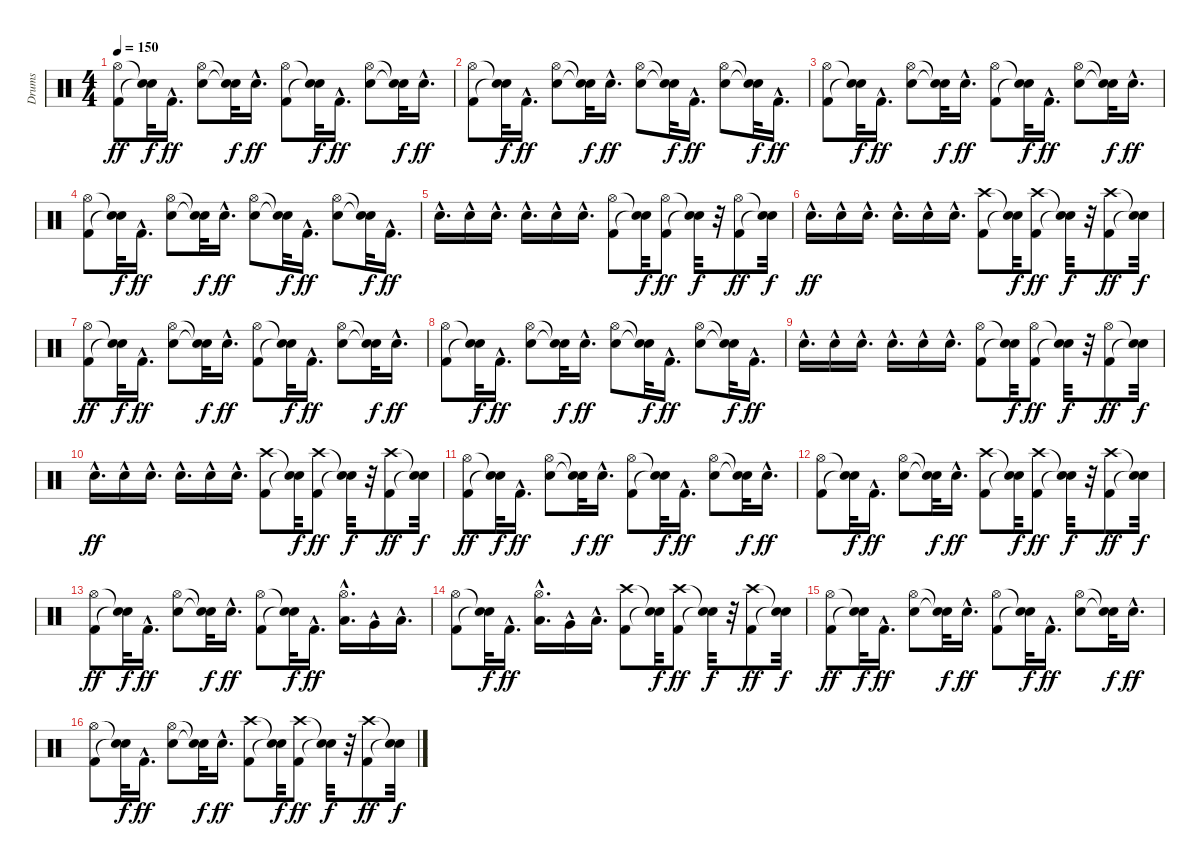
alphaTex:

\track ("Drums" "Drums") {instrument percussion}
\staff {score}
\articulation defaults
\ts (4 4)
\tempo 150
\clef neutral
\ks c
("Kick (hit) 2" "Hi-Hat (open)").8{dy ff} ("Snare (hit)"{t} "Snare (hit)"{t}).32{dy f} "Kick (hit) 2"{hac}.16{d dy ff} ("Snare (hit) 2" "Hi-Hat (open)").8 ("Snare (hit)"{t} "Snare (hit)"{t}).32{dy f} "Snare (hit) 2"{hac}.16{d dy ff} ("Kick (hit) 2" "Hi-Hat (open)").8 ("Snare (hit)"{t} "Snare (hit)"{t}).32{dy f} "Kick (hit) 2"{hac}.16{d dy ff} ("Snare (hit) 2" "Hi-Hat (open)").8 ("Snare (hit)"{t} "Snare (hit)"{t}).32{dy f} "Snare (hit) 2"{hac}.16{d dy ff} |
("Kick (hit) 2" "Hi-Hat (open)").8 ("Snare (hit)"{t} "Snare (hit)"{t}).32{dy f} "Kick (hit) 2"{hac}.16{d dy ff} ("Snare (hit) 2" "Hi-Hat (open)").8 ("Snare (hit)"{t} "Snare (hit)"{t}).32{dy f} "Snare (hit) 2"{hac}.16{d dy ff} ("Snare (hit) 2" "Hi-Hat (open)").8 ("Snare (hit)"{t} "Snare (hit)"{t}).32{dy f} "Kick (hit) 2"{hac}.16{d dy ff} ("Snare (hit) 2" "Hi-Hat (open)").8 ("Snare (hit)"{t} "Snare (hit)"{t}).32{dy f} "Kick (hit) 2"{hac}.16{d dy ff} |
("Kick (hit) 2" "Hi-Hat (open)").8 ("Snare (hit)"{t} "Snare (hit)"{t}).32{dy f} "Kick (hit) 2"{hac}.16{d dy ff} ("Snare (hit) 2" "Hi-Hat (open)").8 ("Snare (hit)"{t} "Snare (hit)"{t}).32{dy f} "Snare (hit) 2"{hac}.16{d dy ff} ("Kick (hit) 2" "Hi-Hat (open)").8 ("Snare (hit)"{t} "Snare (hit)"{t}).32{dy f} "Kick (hit) 2"{hac}.16{d dy ff} ("Snare (hit) 2" "Hi-Hat (open)").8 ("Snare (hit)"{t} "Snare (hit)"{t}).32{dy f} "Snare (hit) 2"{hac}.16{d dy ff} |
("Kick (hit) 2" "Hi-Hat (open)").8 ("Snare (hit)"{t} "Snare (hit)"{t}).32{dy f} "Kick (hit) 2"{hac}.16{d dy ff} ("Snare (hit) 2" "Hi-Hat (open)").8 ("Snare (hit)"{t} "Snare (hit)"{t}).32{dy f} "Snare (hit) 2"{hac}.16{d dy ff} ("Snare (hit) 2" "Hi-Hat (open)").8 ("Snare (hit)"{t} "Snare (hit)"{t}).32{dy f} "Kick (hit) 2"{hac}.16{d dy ff} ("Snare (hit) 2" "Hi-Hat (open)").8 ("Snare (hit)"{t} "Snare (hit)"{t}).32{dy f} "Kick (hit) 2"{hac}.16{d dy ff} |
"Snare (hit) 2"{hac}.16{d} "Snare (hit) 2"{hac}.16 "Snare (hit) 2"{hac}.16{d} "Snare (hit) 2"{hac}.16{d} "Snare (hit) 2"{hac}.16 "Snare (hit) 2"{hac}.16{d} ("Kick (hit) 2" "Hi-Hat (open)").8 ("Snare (hit)"{t} "Snare (hit)"{t}).32{dy f} ("Kick (hit) 2" "Hi-Hat (open)").8{dy ff} ("Snare (hit)"{t} "Snare (hit)"{t}).32{dy f} r.32 ("Kick (hit) 2" "Hi-Hat (open)").8{dy ff} ("Snare (hit)"{t} "Snare (hit)"{t}).32{dy f} |
"Snare (hit) 2"{hac}.16{d dy ff} "Snare (hit) 2"{hac}.16 "Snare (hit) 2"{hac}.16{d} "Snare (hit) 2"{hac}.16{d} "Snare (hit) 2"{hac}.16 "Snare (hit) 2"{hac}.16{d} ("Kick (hit) 2" "Crash high (hit)").8 ("Snare (hit)"{t} "Snare (hit)"{t}).32{dy f} ("Kick (hit) 2" "Crash high (hit)").8{dy ff} ("Snare (hit)"{t} "Snare (hit)"{t}).32{dy f} r.32 ("Kick (hit) 2" "Crash high (hit)").8{dy ff} ("Snare (hit)"{t} "Snare (hit)"{t}).32{dy f} |
("Kick (hit) 2" "Hi-Hat (open)").8{dy ff} ("Snare (hit)"{t} "Snare (hit)"{t}).32{dy f} "Kick (hit) 2"{hac}.16{d dy ff} ("Snare (hit) 2" "Hi-Hat (open)").8 ("Snare (hit)"{t} "Snare (hit)"{t}).32{dy f} "Snare (hit) 2"{hac}.16{d dy ff} ("Kick (hit) 2" "Hi-Hat (open)").8 ("Snare (hit)"{t} "Snare (hit)"{t}).32{dy f} "Kick (hit) 2"{hac}.16{d dy ff} ("Snare (hit) 2" "Hi-Hat (open)").8 ("Snare (hit)"{t} "Snare (hit)"{t}).32{dy f} "Snare (hit) 2"{hac}.16{d dy ff} |
("Kick (hit) 2" "Hi-Hat (open)").8 ("Snare (hit)"{t} "Snare (hit)"{t}).32{dy f} "Kick (hit) 2"{hac}.16{d dy ff} ("Snare (hit) 2" "Hi-Hat (open)").8 ("Snare (hit)"{t} "Snare (hit)"{t}).32{dy f} "Snare (hit) 2"{hac}.16{d dy ff} ("Snare (hit) 2" "Hi-Hat (open)").8 ("Snare (hit)"{t} "Snare (hit)"{t}).32{dy f} "Kick (hit) 2"{hac}.16{d dy ff} ("Snare (hit) 2" "Hi-Hat (open)").8 ("Snare (hit)"{t} "Snare (hit)"{t}).32{dy f} "Kick (hit) 2"{hac}.16{d dy ff} |
"Snare (hit) 2"{hac}.16{d} "Snare (hit) 2"{hac}.16 "Snare (hit) 2"{hac}.16{d} "Snare (hit) 2"{hac}.16{d} "Snare (hit) 2"{hac}.16 "Snare (hit) 2"{hac}.16{d} ("Kick (hit) 2" "Hi-Hat (open)").8 ("Snare (hit)"{t} "Snare (hit)"{t}).32{dy f} ("Kick (hit) 2" "Hi-Hat (open)").8{dy ff} ("Snare (hit)"{t} "Snare (hit)"{t}).32{dy f} r.32 ("Kick (hit) 2" "Hi-Hat (open)").8{dy ff} ("Snare (hit)"{t} "Snare (hit)"{t}).32{dy f} |
"Snare (hit) 2"{hac}.16{d dy ff} "Snare (hit) 2"{hac}.16 "Snare (hit) 2"{hac}.16{d} "Snare (hit) 2"{hac}.16{d} "Snare (hit) 2"{hac}.16 "Snare (hit) 2"{hac}.16{d} ("Kick (hit) 2" "Crash high (hit)").8 ("Snare (hit)"{t} "Snare (hit)"{t}).32{dy f} ("Kick (hit) 2" "Crash high (hit)").8{dy ff} ("Snare (hit)"{t} "Snare (hit)"{t}).32{dy f} r.32 ("Kick (hit) 2" "Crash high (hit)").8{dy ff} ("Snare (hit)"{t} "Snare (hit)"{t}).32{dy f} |
("Kick (hit) 2" "Hi-Hat (open)").8{dy ff} ("Snare (hit)"{t} "Snare (hit)"{t}).32{dy f} "Kick (hit) 2"{hac}.16{d dy ff} ("Snare (hit) 2" "Hi-Hat (open)").8 ("Snare (hit)"{t} "Snare (hit)"{t}).32{dy f} "Snare (hit) 2"{hac}.16{d dy ff} ("Kick (hit) 2" "Hi-Hat (open)").8 ("Snare (hit)"{t} "Snare (hit)"{t}).32{dy f} "Kick (hit) 2"{hac}.16{d dy ff} ("Snare (hit) 2" "Hi-Hat (open)").8 ("Snare (hit)"{t} "Snare (hit)"{t}).32{dy f} "Snare (hit) 2"{hac}.16{d dy ff} |
("Kick (hit) 2" "Hi-Hat (open)").8 ("Snare (hit)"{t} "Snare (hit)"{t}).32{dy f} "Kick (hit) 2"{hac}.16{d dy ff} ("Snare (hit) 2" "Hi-Hat (open)").8 ("Snare (hit)"{t} "Snare (hit)"{t}).32{dy f} "Snare (hit) 2"{hac}.16{d dy ff} ("Kick (hit) 2" "Crash high (hit)").8 ("Snare (hit)"{t} "Snare (hit)"{t}).32{dy f} ("Kick (hit) 2" "Crash high (hit)").8{dy ff} ("Snare (hit)"{t} "Snare (hit)"{t}).32{dy f} r.32 ("Kick (hit) 2" "Crash high (hit)").8{dy ff} ("Snare (hit)"{t} "Snare (hit)"{t}).32{dy f} |
("Kick (hit) 2" "Hi-Hat (open)").8{dy ff} ("Snare (hit)"{t} "Snare (hit)"{t}).32{dy f} "Kick (hit) 2"{hac}.16{d dy ff} ("Snare (hit) 2" "Hi-Hat (open)").8 ("Snare (hit)"{t} "Snare (hit)"{t}).32{dy f} "Snare (hit) 2"{hac}.16{d dy ff} ("Kick (hit) 2" "Hi-Hat (open)").8 ("Snare (hit)"{t} "Snare (hit)"{t}).32{dy f} "Kick (hit) 2"{hac}.16{d dy ff} ("Low Tom (hit)"{hac} "Hi-Hat (open)"{hac}).16{d} "Very Low Tom (hit)"{hac}.16 "Low Floor Tom (hit)"{hac}.16{d} |
("Kick (hit) 2" "Hi-Hat (open)").8 ("Snare (hit)"{t} "Snare (hit)"{t}).32{dy f} "Kick (hit) 2"{hac}.16{d dy ff} ("Low Tom (hit)"{hac} "Hi-Hat (open)"{hac}).16{d} "Very Low Tom (hit)"{hac}.16 "Low Floor Tom (hit)"{hac}.16{d} ("Kick (hit) 2" "Crash high (hit)").8 ("Snare (hit)"{t} "Snare (hit)"{t}).32{dy f} ("Kick (hit) 2" "Crash high (hit)").8{dy ff} ("Snare (hit)"{t} "Snare (hit)"{t}).32{dy f} r.32 ("Kick (hit) 2" "Crash high (hit)").8{dy ff} ("Snare (hit)"{t} "Snare (hit)"{t}).32{dy f} |
("Kick (hit) 2" "Hi-Hat (open)").8{dy ff} ("Snare (hit)"{t} "Snare (hit)"{t}).32{dy f} "Kick (hit) 2"{hac}.16{d dy ff} ("Snare (hit) 2" "Hi-Hat (open)").8 ("Snare (hit)"{t} "Snare (hit)"{t}).32{dy f} "Snare (hit) 2"{hac}.16{d dy ff} ("Kick (hit) 2" "Hi-Hat (open)").8 ("Snare (hit)"{t} "Snare (hit)"{t}).32{dy f} "Kick (hit) 2"{hac}.16{d dy ff} ("Snare (hit) 2" "Hi-Hat (open)").8 ("Snare (hit)"{t} "Snare (hit)"{t}).32{dy f} "Snare (hit) 2"{hac}.16{d dy ff} |
("Kick (hit) 2" "Hi-Hat (open)").8 ("Snare (hit)"{t} "Snare (hit)"{t}).32{dy f} "Kick (hit) 2"{hac}.16{d dy ff} ("Snare (hit) 2" "Hi-Hat (open)").8 ("Snare (hit)"{t} "Snare (hit)"{t}).32{dy f} "Snare (hit) 2"{hac}.16{d dy ff} ("Kick (hit) 2" "Crash high (hit)").8 ("Snare (hit)"{t} "Snare (hit)"{t}).32{dy f} ("Kick (hit) 2" "Crash high (hit)").8{dy ff} ("Snare (hit)"{t} "Snare (hit)"{t}).32{dy f} r.32 ("Kick (hit) 2" "Crash high (hit)").8{dy ff} ("Snare (hit)"{t} "Snare (hit)"{t}).32{dy f}
